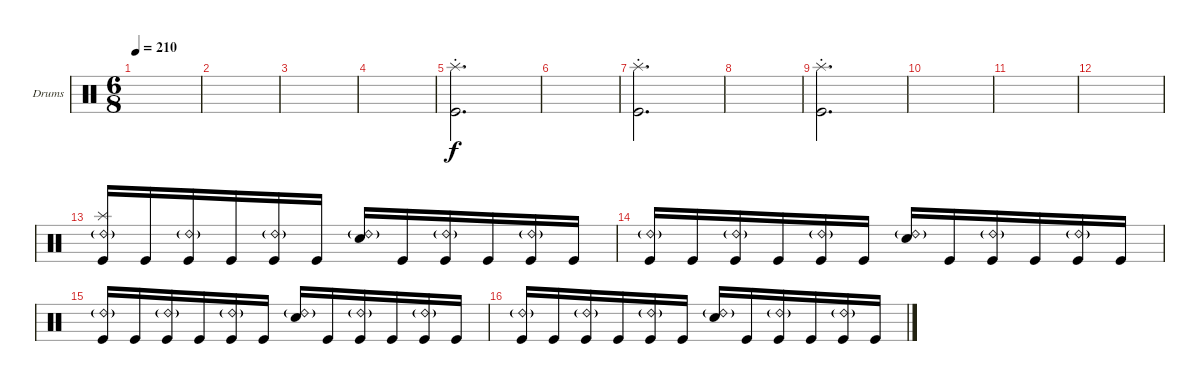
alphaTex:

\bracketExtendMode groupsimilarinstruments
\firstSystemTrackNameOrientation horizontal
\otherSystemsTrackNameOrientation horizontal
\track ("Drumkit" "Drums") {instrument percussion}
\staff {score}
\articulation defaults
\ts (6 8)
\tempo 210
\clef neutral
\ks c
|
|
|
|
("Kick (hit)" "Splash (hit)"{st}).2{d} |
|
("Kick (hit)" "Splash (hit)"{st}).2{d} |
|
("Kick (hit)" "Splash (hit)"{st}).2{d} |
|
|
|
("Kick (hit)" "Ride (bell) 2"{g} "Splash (hit)").16 "Kick (hit)".16 ("Kick (hit)" "Ride (bell) 2"{g}).16 "Kick (hit)".16 ("Kick (hit)" "Ride (bell) 2"{g}).16 "Kick (hit)".16 ("Snare (hit) 2" "Ride (bell) 2"{g}).16 "Kick (hit)".16 ("Kick (hit)" "Ride (bell) 2"{g}).16 "Kick (hit)".16 ("Kick (hit)" "Ride (bell) 2"{g}).16 "Kick (hit)".16 |
("Kick (hit)" "Ride (bell) 2"{g}).16 "Kick (hit)".16 ("Kick (hit)" "Ride (bell) 2"{g}).16 "Kick (hit)".16 ("Kick (hit)" "Ride (bell) 2"{g}).16 "Kick (hit)".16 ("Snare (hit) 2" "Ride (bell) 2"{g}).16 "Kick (hit)".16 ("Kick (hit)" "Ride (bell) 2"{g}).16 "Kick (hit)".16 ("Kick (hit)" "Ride (bell) 2"{g}).16 "Kick (hit)".16 |
("Kick (hit)" "Ride (bell) 2"{g}).16 "Kick (hit)".16 ("Kick (hit)" "Ride (bell) 2"{g}).16 "Kick (hit)".16 ("Kick (hit)" "Ride (bell) 2"{g}).16 "Kick (hit)".16 ("Snare (hit) 2" "Ride (bell) 2"{g}).16 "Kick (hit)".16 ("Kick (hit)" "Ride (bell) 2"{g}).16 "Kick (hit)".16 ("Kick (hit)" "Ride (bell) 2"{g}).16 "Kick (hit)".16 |
("Kick (hit)" "Ride (bell) 2"{g}).16 "Kick (hit)".16 ("Kick (hit)" "Ride (bell) 2"{g}).16 "Kick (hit)".16 ("Kick (hit)" "Ride (bell) 2"{g}).16 "Kick (hit)".16 ("Snare (hit) 2" "Ride (bell) 2"{g}).16 "Kick (hit)".16 ("Kick (hit)" "Ride (bell) 2"{g}).16 "Kick (hit)".16 ("Kick (hit)" "Ride (bell) 2"{g}).16 "Kick (hit)".16
